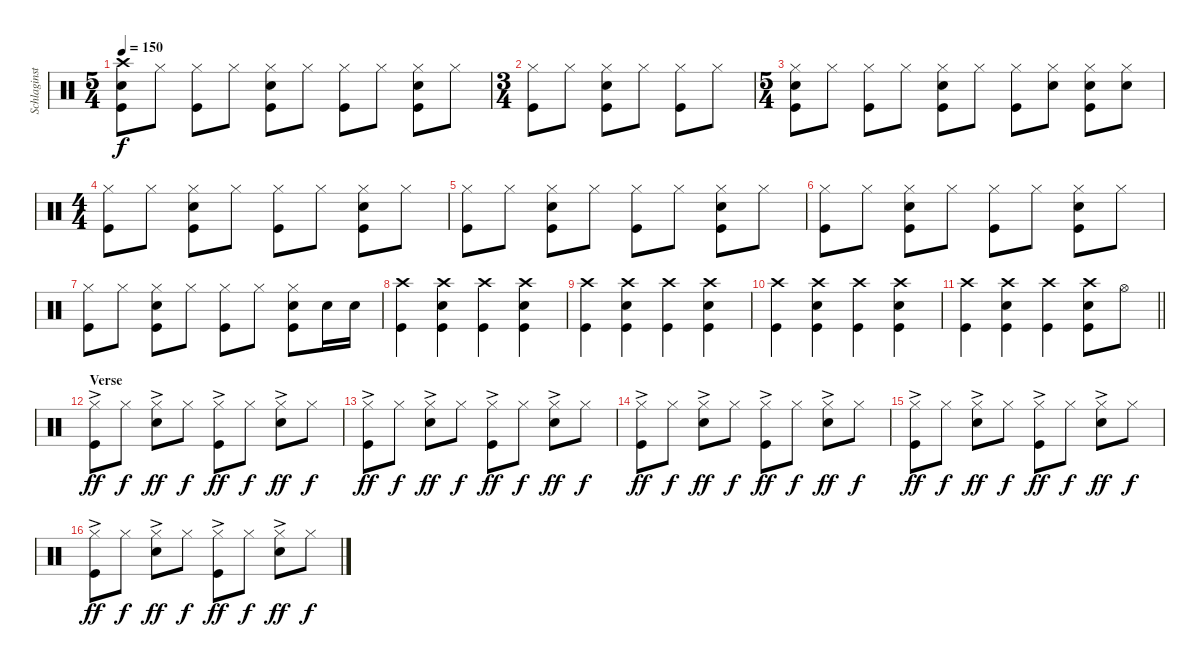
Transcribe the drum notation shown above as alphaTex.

\track ("Schlaginstrumente - Auswahl" "Schlaginst") {instrument percussion}
\staff {score}
\articulation defaults
\ts (5 4)
\tempo 150
\clef neutral
\ks c
("Crash high (hit)" "Snare (hit) 2" "Kick (hit)").8{dy f} "Hi-Hat (closed)".8 ("Kick (hit)" "Hi-Hat (closed)").8 "Hi-Hat (closed)".8 ("Hi-Hat (closed)" "Kick (hit)" "Snare (hit) 2").8 "Hi-Hat (closed)".8 ("Hi-Hat (closed)" "Kick (hit)").8 "Hi-Hat (closed)".8 ("Hi-Hat (closed)" "Kick (hit)" "Snare (hit) 2").8 "Hi-Hat (closed)".8 |
\ts (3 4)
("Kick (hit)" "Hi-Hat (closed)").8 "Hi-Hat (closed)".8 ("Hi-Hat (closed)" "Kick (hit)" "Snare (hit) 2").8 "Hi-Hat (closed)".8 ("Hi-Hat (closed)" "Kick (hit)").8 "Hi-Hat (closed)".8 |
\ts (5 4)
("Hi-Hat (closed)" "Kick (hit)" "Snare (hit) 2").8 "Hi-Hat (closed)".8 ("Kick (hit)" "Hi-Hat (closed)").8 "Hi-Hat (closed)".8 ("Hi-Hat (closed)" "Kick (hit)" "Snare (hit) 2").8 "Hi-Hat (closed)".8 ("Hi-Hat (closed)" "Kick (hit)").8 ("Hi-Hat (closed)" "Snare (hit) 2").8 ("Hi-Hat (closed)" "Kick (hit)" "Snare (hit) 2").8 ("Hi-Hat (closed)" "Snare (hit) 2").8 |
\ts (4 4)
("Kick (hit)" "Hi-Hat (closed)").8 "Hi-Hat (closed)".8 ("Hi-Hat (closed)" "Kick (hit)" "Snare (hit) 2").8 "Hi-Hat (closed)".8 ("Hi-Hat (closed)" "Kick (hit)").8 "Hi-Hat (closed)".8 ("Hi-Hat (closed)" "Kick (hit)" "Snare (hit) 2").8 "Hi-Hat (closed)".8 |
("Kick (hit)" "Hi-Hat (closed)").8 "Hi-Hat (closed)".8 ("Hi-Hat (closed)" "Kick (hit)" "Snare (hit) 2").8 "Hi-Hat (closed)".8 ("Hi-Hat (closed)" "Kick (hit)").8 "Hi-Hat (closed)".8 ("Hi-Hat (closed)" "Kick (hit)" "Snare (hit) 2").8 "Hi-Hat (closed)".8 |
("Kick (hit)" "Hi-Hat (closed)").8 "Hi-Hat (closed)".8 ("Hi-Hat (closed)" "Kick (hit)" "Snare (hit) 2").8 "Hi-Hat (closed)".8 ("Hi-Hat (closed)" "Kick (hit)").8 "Hi-Hat (closed)".8 ("Hi-Hat (closed)" "Kick (hit)" "Snare (hit) 2").8 "Hi-Hat (closed)".8 |
("Kick (hit)" "Hi-Hat (closed)").8 "Hi-Hat (closed)".8 ("Hi-Hat (closed)" "Kick (hit)" "Snare (hit) 2").8 "Hi-Hat (closed)".8 ("Hi-Hat (closed)" "Kick (hit)").8 "Hi-Hat (closed)".8 ("Hi-Hat (closed)" "Kick (hit)" "Snare (hit) 2").8 "Snare (hit) 2".16 "Snare (hit) 2".16 |
("Crash high (hit)" "Kick (hit)").4 ("Crash high (hit)" "Snare (hit) 2" "Kick (hit)").4 ("Crash high (hit)" "Kick (hit)").4 ("Crash high (hit)" "Snare (hit) 2" "Kick (hit)").4 |
("Crash high (hit)" "Kick (hit)").4 ("Crash high (hit)" "Snare (hit) 2" "Kick (hit)").4 ("Crash high (hit)" "Kick (hit)").4 ("Crash high (hit)" "Snare (hit) 2" "Kick (hit)").4 |
("Crash high (hit)" "Kick (hit)").4 ("Crash high (hit)" "Snare (hit) 2" "Kick (hit)").4 ("Crash high (hit)" "Kick (hit)").4 ("Crash high (hit)" "Snare (hit) 2" "Kick (hit)").4 |
\barLineRight lightlight
("Crash high (hit)" "Kick (hit)").4 ("Crash high (hit)" "Snare (hit) 2" "Kick (hit)").4 ("Crash high (hit)" "Kick (hit)").4 ("Crash high (hit)" "Snare (hit) 2" "Kick (hit)").8 "Hi-Hat (open)".8 |
\section ("" "Verse")
("Hi-Hat (closed)"{ac} "Kick (hit)").8{dy ff} "Hi-Hat (closed)".8{dy f} ("Hi-Hat (closed)"{ac} "Snare (hit) 2").8{dy ff} "Hi-Hat (closed)".8{dy f} ("Hi-Hat (closed)"{ac} "Kick (hit)").8{dy ff} "Hi-Hat (closed)".8{dy f} ("Hi-Hat (closed)"{ac} "Snare (hit) 2").8{dy ff} "Hi-Hat (closed)".8{dy f} |
("Hi-Hat (closed)"{ac} "Kick (hit)").8{dy ff} "Hi-Hat (closed)".8{dy f} ("Hi-Hat (closed)"{ac} "Snare (hit) 2").8{dy ff} "Hi-Hat (closed)".8{dy f} ("Hi-Hat (closed)"{ac} "Kick (hit)").8{dy ff} "Hi-Hat (closed)".8{dy f} ("Hi-Hat (closed)"{ac} "Snare (hit) 2").8{dy ff} "Hi-Hat (closed)".8{dy f} |
("Hi-Hat (closed)"{ac} "Kick (hit)").8{dy ff} "Hi-Hat (closed)".8{dy f} ("Hi-Hat (closed)"{ac} "Snare (hit) 2").8{dy ff} "Hi-Hat (closed)".8{dy f} ("Hi-Hat (closed)"{ac} "Kick (hit)").8{dy ff} "Hi-Hat (closed)".8{dy f} ("Hi-Hat (closed)"{ac} "Snare (hit) 2").8{dy ff} "Hi-Hat (closed)".8{dy f} |
("Hi-Hat (closed)"{ac} "Kick (hit)").8{dy ff} "Hi-Hat (closed)".8{dy f} ("Hi-Hat (closed)"{ac} "Snare (hit) 2").8{dy ff} "Hi-Hat (closed)".8{dy f} ("Hi-Hat (closed)"{ac} "Kick (hit)").8{dy ff} "Hi-Hat (closed)".8{dy f} ("Hi-Hat (closed)"{ac} "Snare (hit) 2").8{dy ff} "Hi-Hat (closed)".8{dy f} |
("Hi-Hat (closed)"{ac} "Kick (hit)").8{dy ff} "Hi-Hat (closed)".8{dy f} ("Hi-Hat (closed)"{ac} "Snare (hit) 2").8{dy ff} "Hi-Hat (closed)".8{dy f} ("Hi-Hat (closed)"{ac} "Kick (hit)").8{dy ff} "Hi-Hat (closed)".8{dy f} ("Hi-Hat (closed)"{ac} "Snare (hit) 2").8{dy ff} "Hi-Hat (closed)".8{dy f}
